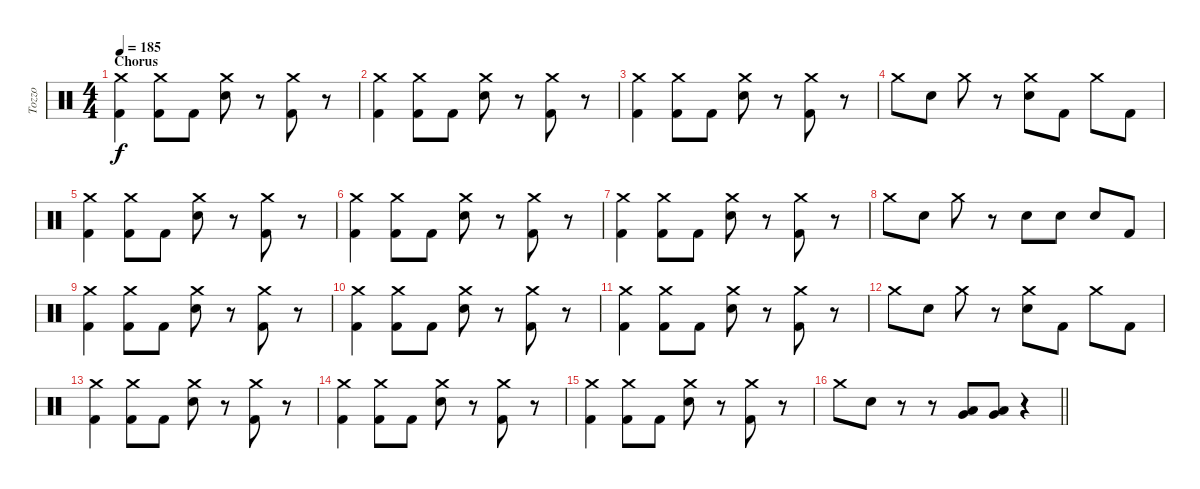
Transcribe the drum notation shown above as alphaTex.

\track ("Tozzo" "Tozzo") {instrument percussion}
\staff {score}
\articulation defaults
\ts (4 4)
\section ("" "Chorus")
\tempo 185
\clef neutral
\ks c
("Crash medium (hit)" "Kick (hit) 2").4{dy f} ("Crash medium (hit)" "Kick (hit) 2").8 "Kick (hit) 2".8 ("Crash medium (hit)" "Electric Snare (hit)").8 r.8 ("Crash medium (hit)" "Kick (hit) 2").8 r.8 |
("Crash medium (hit)" "Kick (hit) 2").4 ("Crash medium (hit)" "Kick (hit) 2").8 "Kick (hit) 2".8 ("Crash medium (hit)" "Electric Snare (hit)").8 r.8 ("Crash medium (hit)" "Kick (hit) 2").8 r.8 |
("Crash medium (hit)" "Kick (hit) 2").4 ("Crash medium (hit)" "Kick (hit) 2").8 "Kick (hit) 2".8 ("Crash medium (hit)" "Electric Snare (hit)").8 r.8 ("Crash medium (hit)" "Kick (hit) 2").8 r.8 |
"Crash medium (hit)".8 "Electric Snare (hit)".8 "Crash medium (hit)".8 r.8 ("Crash medium (hit)" "Electric Snare (hit)").8 "Kick (hit) 2".8 "Crash medium (hit)".8 "Kick (hit) 2".8 |
("Crash medium (hit)" "Kick (hit) 2").4 ("Crash medium (hit)" "Kick (hit) 2").8 "Kick (hit) 2".8 ("Crash medium (hit)" "Electric Snare (hit)").8 r.8 ("Crash medium (hit)" "Kick (hit) 2").8 r.8 |
("Crash medium (hit)" "Kick (hit) 2").4 ("Crash medium (hit)" "Kick (hit) 2").8 "Kick (hit) 2".8 ("Crash medium (hit)" "Electric Snare (hit)").8 r.8 ("Crash medium (hit)" "Kick (hit) 2").8 r.8 |
("Crash medium (hit)" "Kick (hit) 2").4 ("Crash medium (hit)" "Kick (hit) 2").8 "Kick (hit) 2".8 ("Crash medium (hit)" "Electric Snare (hit)").8 r.8 ("Crash medium (hit)" "Kick (hit) 2").8 r.8 |
"Crash medium (hit)".8 "Electric Snare (hit)".8 "Crash medium (hit)".8 r.8 "Electric Snare (hit)".8 "Electric Snare (hit)".8 "Electric Snare (hit)".8 "Kick (hit) 2".8 |
("Crash medium (hit)" "Kick (hit) 2").4 ("Crash medium (hit)" "Kick (hit) 2").8 "Kick (hit) 2".8 ("Crash medium (hit)" "Electric Snare (hit)").8 r.8 ("Crash medium (hit)" "Kick (hit) 2").8 r.8 |
("Crash medium (hit)" "Kick (hit) 2").4 ("Crash medium (hit)" "Kick (hit) 2").8 "Kick (hit) 2".8 ("Crash medium (hit)" "Electric Snare (hit)").8 r.8 ("Crash medium (hit)" "Kick (hit) 2").8 r.8 |
("Crash medium (hit)" "Kick (hit) 2").4 ("Crash medium (hit)" "Kick (hit) 2").8 "Kick (hit) 2".8 ("Crash medium (hit)" "Electric Snare (hit)").8 r.8 ("Crash medium (hit)" "Kick (hit) 2").8 r.8 |
"Crash medium (hit)".8 "Electric Snare (hit)".8 "Crash medium (hit)".8 r.8 ("Crash medium (hit)" "Electric Snare (hit)").8 "Kick (hit) 2".8 "Crash medium (hit)".8 "Kick (hit) 2".8 |
("Crash medium (hit)" "Kick (hit) 2").4 ("Crash medium (hit)" "Kick (hit) 2").8 "Kick (hit) 2".8 ("Crash medium (hit)" "Electric Snare (hit)").8 r.8 ("Crash medium (hit)" "Kick (hit) 2").8 r.8 |
("Crash medium (hit)" "Kick (hit) 2").4 ("Crash medium (hit)" "Kick (hit) 2").8 "Kick (hit) 2".8 ("Crash medium (hit)" "Electric Snare (hit)").8 r.8 ("Crash medium (hit)" "Kick (hit) 2").8 r.8 |
("Crash medium (hit)" "Kick (hit) 2").4 ("Crash medium (hit)" "Kick (hit) 2").8 "Kick (hit) 2".8 ("Crash medium (hit)" "Electric Snare (hit)").8 r.8 ("Crash medium (hit)" "Kick (hit) 2").8 r.8 |
\barLineRight lightlight "Crash medium (hit)".8 "Electric Snare (hit)".8
r.8 r.8 ("Low Tom (hit)" "Very Low Tom (hit)").8 ("Low Tom (hit)" "Very Low Tom (hit)").8 r.4
